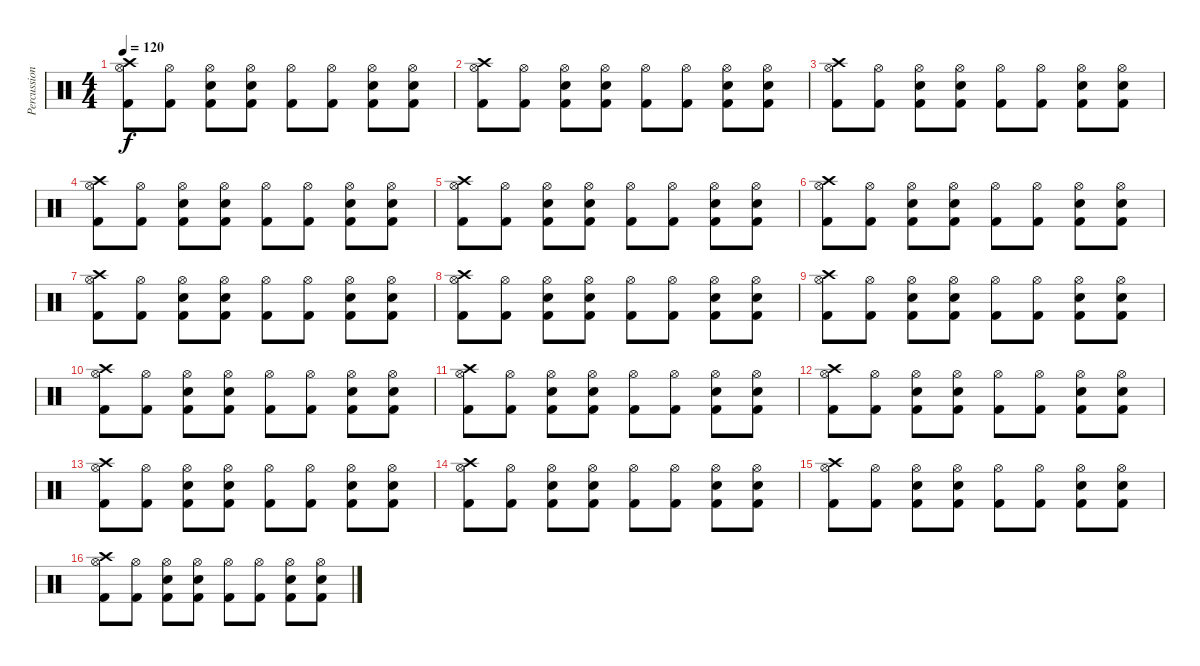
\track ("Percussioni" "Percussion") {instrument percussion}
\staff {score}
\articulation defaults
\ts (4 4)
\tempo 120
\clef neutral
\ks c
("Hi-Hat (open)" "Kick (hit) 2" "Crash high (hit)").8{dy f} ("Hi-Hat (open)" "Kick (hit) 2").8 ("Hi-Hat (open)" "Kick (hit) 2" "Electric Snare (hit)").8 ("Hi-Hat (open)" "Kick (hit) 2" "Electric Snare (hit)").8 ("Hi-Hat (open)" "Kick (hit) 2").8 ("Hi-Hat (open)" "Kick (hit) 2").8 ("Hi-Hat (open)" "Kick (hit) 2" "Electric Snare (hit)").8 ("Hi-Hat (open)" "Kick (hit) 2" "Electric Snare (hit)").8 |
("Hi-Hat (open)" "Kick (hit) 2" "Crash high (hit)").8 ("Hi-Hat (open)" "Kick (hit) 2").8 ("Hi-Hat (open)" "Kick (hit) 2" "Electric Snare (hit)").8 ("Hi-Hat (open)" "Kick (hit) 2" "Electric Snare (hit)").8 ("Hi-Hat (open)" "Kick (hit) 2").8 ("Hi-Hat (open)" "Kick (hit) 2").8 ("Hi-Hat (open)" "Kick (hit) 2" "Electric Snare (hit)").8 ("Hi-Hat (open)" "Kick (hit) 2" "Electric Snare (hit)").8 |
("Hi-Hat (open)" "Kick (hit) 2" "Crash high (hit)").8 ("Hi-Hat (open)" "Kick (hit) 2").8 ("Hi-Hat (open)" "Kick (hit) 2" "Electric Snare (hit)").8 ("Hi-Hat (open)" "Kick (hit) 2" "Electric Snare (hit)").8 ("Hi-Hat (open)" "Kick (hit) 2").8 ("Hi-Hat (open)" "Kick (hit) 2").8 ("Hi-Hat (open)" "Kick (hit) 2" "Electric Snare (hit)").8 ("Hi-Hat (open)" "Kick (hit) 2" "Electric Snare (hit)").8 |
("Hi-Hat (open)" "Kick (hit) 2" "Crash high (hit)").8 ("Hi-Hat (open)" "Kick (hit) 2").8 ("Hi-Hat (open)" "Kick (hit) 2" "Electric Snare (hit)").8 ("Hi-Hat (open)" "Kick (hit) 2" "Electric Snare (hit)").8 ("Hi-Hat (open)" "Kick (hit) 2").8 ("Hi-Hat (open)" "Kick (hit) 2").8 ("Hi-Hat (open)" "Kick (hit) 2" "Electric Snare (hit)").8 ("Hi-Hat (open)" "Kick (hit) 2" "Electric Snare (hit)").8 |
("Hi-Hat (open)" "Kick (hit) 2" "Crash high (hit)").8 ("Hi-Hat (open)" "Kick (hit) 2").8 ("Hi-Hat (open)" "Kick (hit) 2" "Electric Snare (hit)").8 ("Hi-Hat (open)" "Kick (hit) 2" "Electric Snare (hit)").8 ("Hi-Hat (open)" "Kick (hit) 2").8 ("Hi-Hat (open)" "Kick (hit) 2").8 ("Hi-Hat (open)" "Kick (hit) 2" "Electric Snare (hit)").8 ("Hi-Hat (open)" "Kick (hit) 2" "Electric Snare (hit)").8 |
("Hi-Hat (open)" "Kick (hit) 2" "Crash high (hit)").8 ("Hi-Hat (open)" "Kick (hit) 2").8 ("Hi-Hat (open)" "Kick (hit) 2" "Electric Snare (hit)").8 ("Hi-Hat (open)" "Kick (hit) 2" "Electric Snare (hit)").8 ("Hi-Hat (open)" "Kick (hit) 2").8 ("Hi-Hat (open)" "Kick (hit) 2").8 ("Hi-Hat (open)" "Kick (hit) 2" "Electric Snare (hit)").8 ("Hi-Hat (open)" "Kick (hit) 2" "Electric Snare (hit)").8 |
("Hi-Hat (open)" "Kick (hit) 2" "Crash high (hit)").8 ("Hi-Hat (open)" "Kick (hit) 2").8 ("Hi-Hat (open)" "Kick (hit) 2" "Electric Snare (hit)").8 ("Hi-Hat (open)" "Kick (hit) 2" "Electric Snare (hit)").8 ("Hi-Hat (open)" "Kick (hit) 2").8 ("Hi-Hat (open)" "Kick (hit) 2").8 ("Hi-Hat (open)" "Kick (hit) 2" "Electric Snare (hit)").8 ("Hi-Hat (open)" "Kick (hit) 2" "Electric Snare (hit)").8 |
("Hi-Hat (open)" "Kick (hit) 2" "Crash high (hit)").8 ("Hi-Hat (open)" "Kick (hit) 2").8 ("Hi-Hat (open)" "Kick (hit) 2" "Electric Snare (hit)").8 ("Hi-Hat (open)" "Kick (hit) 2" "Electric Snare (hit)").8 ("Hi-Hat (open)" "Kick (hit) 2").8 ("Hi-Hat (open)" "Kick (hit) 2").8 ("Hi-Hat (open)" "Kick (hit) 2" "Electric Snare (hit)").8 ("Hi-Hat (open)" "Kick (hit) 2" "Electric Snare (hit)").8 |
("Hi-Hat (open)" "Kick (hit) 2" "Crash high (hit)").8 ("Hi-Hat (open)" "Kick (hit) 2").8 ("Hi-Hat (open)" "Kick (hit) 2" "Electric Snare (hit)").8 ("Hi-Hat (open)" "Kick (hit) 2" "Electric Snare (hit)").8 ("Hi-Hat (open)" "Kick (hit) 2").8 ("Hi-Hat (open)" "Kick (hit) 2").8 ("Hi-Hat (open)" "Kick (hit) 2" "Electric Snare (hit)").8 ("Hi-Hat (open)" "Kick (hit) 2" "Electric Snare (hit)").8 |
("Hi-Hat (open)" "Kick (hit) 2" "Crash high (hit)").8 ("Hi-Hat (open)" "Kick (hit) 2").8 ("Hi-Hat (open)" "Kick (hit) 2" "Electric Snare (hit)").8 ("Hi-Hat (open)" "Kick (hit) 2" "Electric Snare (hit)").8 ("Hi-Hat (open)" "Kick (hit) 2").8 ("Hi-Hat (open)" "Kick (hit) 2").8 ("Hi-Hat (open)" "Kick (hit) 2" "Electric Snare (hit)").8 ("Hi-Hat (open)" "Kick (hit) 2" "Electric Snare (hit)").8 |
("Hi-Hat (open)" "Kick (hit) 2" "Crash high (hit)").8 ("Hi-Hat (open)" "Kick (hit) 2").8 ("Hi-Hat (open)" "Kick (hit) 2" "Electric Snare (hit)").8 ("Hi-Hat (open)" "Kick (hit) 2" "Electric Snare (hit)").8 ("Hi-Hat (open)" "Kick (hit) 2").8 ("Hi-Hat (open)" "Kick (hit) 2").8 ("Hi-Hat (open)" "Kick (hit) 2" "Electric Snare (hit)").8 ("Hi-Hat (open)" "Kick (hit) 2" "Electric Snare (hit)").8 |
("Hi-Hat (open)" "Kick (hit) 2" "Crash high (hit)").8 ("Hi-Hat (open)" "Kick (hit) 2").8 ("Hi-Hat (open)" "Kick (hit) 2" "Electric Snare (hit)").8 ("Hi-Hat (open)" "Kick (hit) 2" "Electric Snare (hit)").8 ("Hi-Hat (open)" "Kick (hit) 2").8 ("Hi-Hat (open)" "Kick (hit) 2").8 ("Hi-Hat (open)" "Kick (hit) 2" "Electric Snare (hit)").8 ("Hi-Hat (open)" "Kick (hit) 2" "Electric Snare (hit)").8 |
("Hi-Hat (open)" "Kick (hit) 2" "Crash high (hit)").8 ("Hi-Hat (open)" "Kick (hit) 2").8 ("Hi-Hat (open)" "Kick (hit) 2" "Electric Snare (hit)").8 ("Hi-Hat (open)" "Kick (hit) 2" "Electric Snare (hit)").8 ("Hi-Hat (open)" "Kick (hit) 2").8 ("Hi-Hat (open)" "Kick (hit) 2").8 ("Hi-Hat (open)" "Kick (hit) 2" "Electric Snare (hit)").8 ("Hi-Hat (open)" "Kick (hit) 2" "Electric Snare (hit)").8 |
("Hi-Hat (open)" "Kick (hit) 2" "Crash high (hit)").8 ("Hi-Hat (open)" "Kick (hit) 2").8 ("Hi-Hat (open)" "Kick (hit) 2" "Electric Snare (hit)").8 ("Hi-Hat (open)" "Kick (hit) 2" "Electric Snare (hit)").8 ("Hi-Hat (open)" "Kick (hit) 2").8 ("Hi-Hat (open)" "Kick (hit) 2").8 ("Hi-Hat (open)" "Kick (hit) 2" "Electric Snare (hit)").8 ("Hi-Hat (open)" "Kick (hit) 2" "Electric Snare (hit)").8 |
("Hi-Hat (open)" "Kick (hit) 2" "Crash high (hit)").8 ("Hi-Hat (open)" "Kick (hit) 2").8 ("Hi-Hat (open)" "Kick (hit) 2" "Electric Snare (hit)").8 ("Hi-Hat (open)" "Kick (hit) 2" "Electric Snare (hit)").8 ("Hi-Hat (open)" "Kick (hit) 2").8 ("Hi-Hat (open)" "Kick (hit) 2").8 ("Hi-Hat (open)" "Kick (hit) 2" "Electric Snare (hit)").8 ("Hi-Hat (open)" "Kick (hit) 2" "Electric Snare (hit)").8 |
("Hi-Hat (open)" "Kick (hit) 2" "Crash high (hit)").8 ("Hi-Hat (open)" "Kick (hit) 2").8 ("Hi-Hat (open)" "Kick (hit) 2" "Electric Snare (hit)").8 ("Hi-Hat (open)" "Kick (hit) 2" "Electric Snare (hit)").8 ("Hi-Hat (open)" "Kick (hit) 2").8 ("Hi-Hat (open)" "Kick (hit) 2").8 ("Hi-Hat (open)" "Kick (hit) 2" "Electric Snare (hit)").8 ("Hi-Hat (open)" "Kick (hit) 2" "Electric Snare (hit)").8
